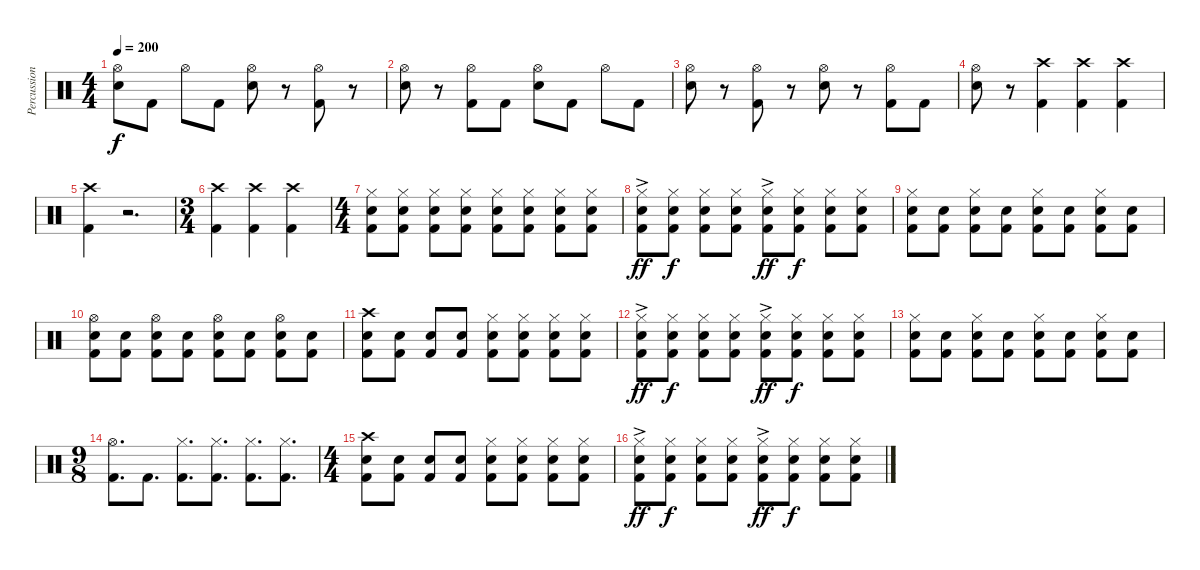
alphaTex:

\track ("Percussions" "Percussion") {instrument percussion}
\staff {score}
\articulation defaults
\ts (4 4)
\tempo 200
\clef neutral
\ks c
("Hi-Hat (open)" "Electric Snare (hit)").8{dy f} "Kick (hit) 2".8 "Hi-Hat (open)".8 "Kick (hit) 2".8 ("Hi-Hat (open)" "Electric Snare (hit)").8 r.8 ("Hi-Hat (open)" "Kick (hit) 2").8 r.8 |
("Hi-Hat (open)" "Electric Snare (hit)").8 r.8 ("Hi-Hat (open)" "Kick (hit) 2").8 "Kick (hit) 2".8 ("Hi-Hat (open)" "Electric Snare (hit)").8 "Kick (hit) 2".8 "Hi-Hat (open)".8 "Kick (hit) 2".8 |
("Hi-Hat (open)" "Electric Snare (hit)").8 r.8 ("Hi-Hat (open)" "Kick (hit) 2").8 r.8 ("Hi-Hat (open)" "Electric Snare (hit)").8 r.8 ("Hi-Hat (open)" "Kick (hit) 2").8 "Kick (hit) 2".8 |
("Hi-Hat (open)" "Electric Snare (hit)").8 r.8 ("Crash high (hit)" "Kick (hit) 2").4 ("Crash high (hit)" "Kick (hit) 2").4 ("Crash high (hit)" "Kick (hit) 2").4 |
("Crash high (hit)" "Kick (hit) 2").4 r.2{d} |
\ts (3 4)
("Crash high (hit)" "Kick (hit) 2").4 ("Crash high (hit)" "Kick (hit) 2").4 ("Crash high (hit)" "Kick (hit) 2").4 |
\ts (4 4)
("Hi-Hat (closed)" "Electric Snare (hit)" "Kick (hit) 2").8 ("Hi-Hat (closed)" "Electric Snare (hit)" "Kick (hit) 2").8 ("Hi-Hat (closed)" "Electric Snare (hit)" "Kick (hit) 2").8 ("Hi-Hat (closed)" "Electric Snare (hit)" "Kick (hit) 2").8 ("Hi-Hat (closed)" "Electric Snare (hit)" "Kick (hit) 2").8 ("Hi-Hat (closed)" "Electric Snare (hit)" "Kick (hit) 2").8 ("Hi-Hat (closed)" "Electric Snare (hit)" "Kick (hit) 2").8 ("Hi-Hat (closed)" "Electric Snare (hit)" "Kick (hit) 2").8 |
("Hi-Hat (closed)"{ac} "Electric Snare (hit)" "Kick (hit) 2").8{dy ff} ("Hi-Hat (closed)" "Electric Snare (hit)" "Kick (hit) 2").8{dy f} ("Hi-Hat (closed)" "Electric Snare (hit)" "Kick (hit) 2").8 ("Hi-Hat (closed)" "Electric Snare (hit)" "Kick (hit) 2").8 ("Hi-Hat (closed)"{ac} "Electric Snare (hit)" "Kick (hit) 2").8{dy ff} ("Hi-Hat (closed)" "Electric Snare (hit)" "Kick (hit) 2").8{dy f} ("Hi-Hat (closed)" "Electric Snare (hit)" "Kick (hit) 2").8 ("Hi-Hat (closed)" "Electric Snare (hit)" "Kick (hit) 2").8 |
("Hi-Hat (closed)" "Electric Snare (hit)" "Kick (hit) 2").8 ("Electric Snare (hit)" "Kick (hit) 2").8 ("Hi-Hat (closed)" "Electric Snare (hit)" "Kick (hit) 2").8 ("Electric Snare (hit)" "Kick (hit) 2").8 ("Hi-Hat (closed)" "Electric Snare (hit)" "Kick (hit) 2").8 ("Electric Snare (hit)" "Kick (hit) 2").8 ("Hi-Hat (closed)" "Electric Snare (hit)" "Kick (hit) 2").8 ("Electric Snare (hit)" "Kick (hit) 2").8 |
("Hi-Hat (open)" "Electric Snare (hit)" "Kick (hit) 2").8 ("Electric Snare (hit)" "Kick (hit) 2").8 ("Hi-Hat (open)" "Electric Snare (hit)" "Kick (hit) 2").8 ("Electric Snare (hit)" "Kick (hit) 2").8 ("Hi-Hat (open)" "Electric Snare (hit)" "Kick (hit) 2").8 ("Electric Snare (hit)" "Kick (hit) 2").8 ("Hi-Hat (open)" "Electric Snare (hit)" "Kick (hit) 2").8 ("Electric Snare (hit)" "Kick (hit) 2").8 |
("Crash high (hit)" "Electric Snare (hit)" "Kick (hit) 2").8 ("Electric Snare (hit)" "Kick (hit) 2").8 ("Electric Snare (hit)" "Kick (hit) 2").8 ("Electric Snare (hit)" "Kick (hit) 2").8 ("Hi-Hat (closed)" "Electric Snare (hit)" "Kick (hit) 2").8 ("Hi-Hat (closed)" "Electric Snare (hit)" "Kick (hit) 2").8 ("Hi-Hat (closed)" "Electric Snare (hit)" "Kick (hit) 2").8 ("Hi-Hat (closed)" "Electric Snare (hit)" "Kick (hit) 2").8 |
("Hi-Hat (closed)"{ac} "Electric Snare (hit)" "Kick (hit) 2").8{dy ff} ("Hi-Hat (closed)" "Electric Snare (hit)" "Kick (hit) 2").8{dy f} ("Hi-Hat (closed)" "Electric Snare (hit)" "Kick (hit) 2").8 ("Hi-Hat (closed)" "Electric Snare (hit)" "Kick (hit) 2").8 ("Hi-Hat (closed)"{ac} "Electric Snare (hit)" "Kick (hit) 2").8{dy ff} ("Hi-Hat (closed)" "Electric Snare (hit)" "Kick (hit) 2").8{dy f} ("Hi-Hat (closed)" "Electric Snare (hit)" "Kick (hit) 2").8 ("Hi-Hat (closed)" "Electric Snare (hit)" "Kick (hit) 2").8 |
("Hi-Hat (closed)" "Electric Snare (hit)" "Kick (hit) 2").8 ("Electric Snare (hit)" "Kick (hit) 2").8 ("Hi-Hat (closed)" "Electric Snare (hit)" "Kick (hit) 2").8 ("Electric Snare (hit)" "Kick (hit) 2").8 ("Hi-Hat (closed)" "Electric Snare (hit)" "Kick (hit) 2").8 ("Electric Snare (hit)" "Kick (hit) 2").8 ("Hi-Hat (closed)" "Electric Snare (hit)" "Kick (hit) 2").8 ("Electric Snare (hit)" "Kick (hit) 2").8 |
\ts (9 8)
("Hi-Hat (open)" "Kick (hit) 2").8{d} "Kick (hit) 2".8{d} ("Hi-Hat (closed)" "Kick (hit) 2").8{d} ("Hi-Hat (closed)" "Kick (hit) 2").8{d} ("Hi-Hat (closed)" "Kick (hit) 2").8{d} ("Hi-Hat (closed)" "Kick (hit) 2").8{d} |
\ts (4 4)
("Crash high (hit)" "Electric Snare (hit)" "Kick (hit) 2").8 ("Electric Snare (hit)" "Kick (hit) 2").8 ("Electric Snare (hit)" "Kick (hit) 2").8 ("Electric Snare (hit)" "Kick (hit) 2").8 ("Hi-Hat (closed)" "Electric Snare (hit)" "Kick (hit) 2").8 ("Hi-Hat (closed)" "Electric Snare (hit)" "Kick (hit) 2").8 ("Hi-Hat (closed)" "Electric Snare (hit)" "Kick (hit) 2").8 ("Hi-Hat (closed)" "Electric Snare (hit)" "Kick (hit) 2").8 |
("Hi-Hat (closed)"{ac} "Electric Snare (hit)" "Kick (hit) 2").8{dy ff} ("Hi-Hat (closed)" "Electric Snare (hit)" "Kick (hit) 2").8{dy f} ("Hi-Hat (closed)" "Electric Snare (hit)" "Kick (hit) 2").8 ("Hi-Hat (closed)" "Electric Snare (hit)" "Kick (hit) 2").8 ("Hi-Hat (closed)"{ac} "Electric Snare (hit)" "Kick (hit) 2").8{dy ff} ("Hi-Hat (closed)" "Electric Snare (hit)" "Kick (hit) 2").8{dy f} ("Hi-Hat (closed)" "Electric Snare (hit)" "Kick (hit) 2").8 ("Hi-Hat (closed)" "Electric Snare (hit)" "Kick (hit) 2").8
